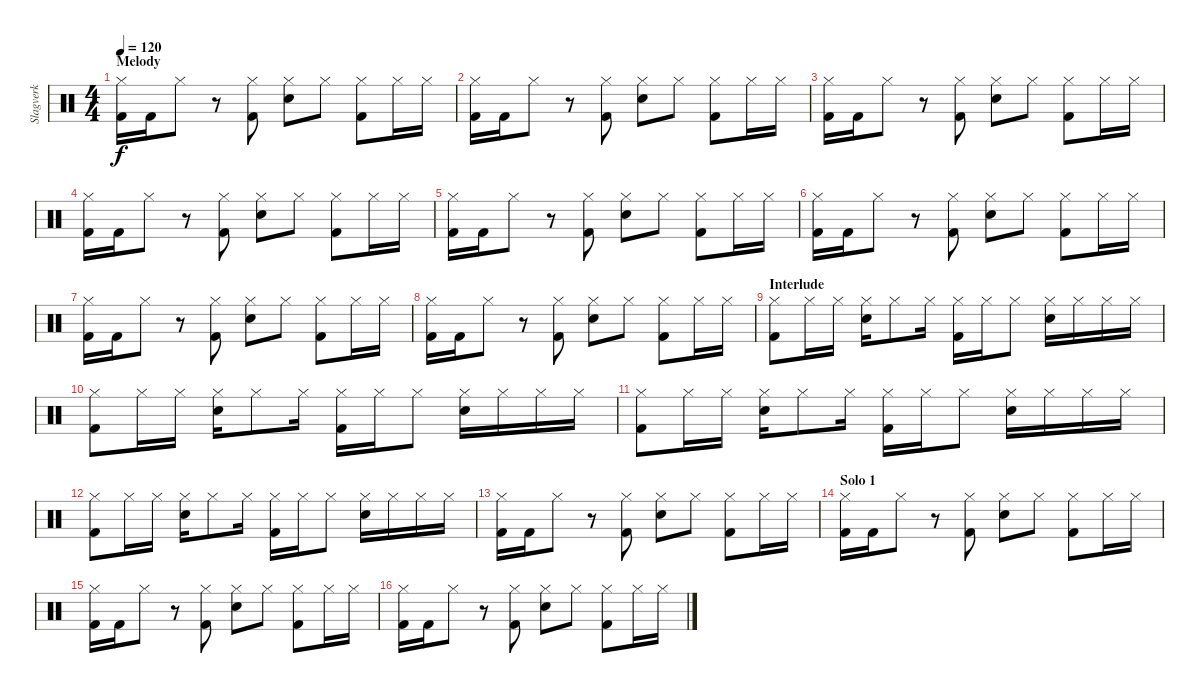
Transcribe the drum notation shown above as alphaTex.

\track ("Slagverk" "Slagverk") {instrument percussion}
\staff {score}
\articulation defaults
\ts (4 4)
\section ("" "Melody")
\tempo 120
\clef neutral
\ks c
("Hi-Hat (closed)" "Kick (hit) 2").16{dy f} "Kick (hit) 2".16 "Hi-Hat (closed)".8 r.8 ("Hi-Hat (closed)" "Kick (hit) 2").8 ("Hi-Hat (closed)" "Snare (hit) 2").8 "Hi-Hat (closed)".8 ("Hi-Hat (closed)" "Kick (hit) 2").8 "Hi-Hat (closed)".16 "Hi-Hat (closed)".16 |
("Hi-Hat (closed)" "Kick (hit) 2").16 "Kick (hit) 2".16 "Hi-Hat (closed)".8 r.8 ("Hi-Hat (closed)" "Kick (hit) 2").8 ("Hi-Hat (closed)" "Snare (hit) 2").8 "Hi-Hat (closed)".8 ("Hi-Hat (closed)" "Kick (hit) 2").8 "Hi-Hat (closed)".16 "Hi-Hat (closed)".16 |
("Hi-Hat (closed)" "Kick (hit) 2").16 "Kick (hit) 2".16 "Hi-Hat (closed)".8 r.8 ("Hi-Hat (closed)" "Kick (hit) 2").8 ("Hi-Hat (closed)" "Snare (hit) 2").8 "Hi-Hat (closed)".8 ("Hi-Hat (closed)" "Kick (hit) 2").8 "Hi-Hat (closed)".16 "Hi-Hat (closed)".16 |
("Hi-Hat (closed)" "Kick (hit) 2").16 "Kick (hit) 2".16 "Hi-Hat (closed)".8 r.8 ("Hi-Hat (closed)" "Kick (hit) 2").8 ("Hi-Hat (closed)" "Snare (hit) 2").8 "Hi-Hat (closed)".8 ("Hi-Hat (closed)" "Kick (hit) 2").8 "Hi-Hat (closed)".16 "Hi-Hat (closed)".16 |
("Hi-Hat (closed)" "Kick (hit) 2").16 "Kick (hit) 2".16 "Hi-Hat (closed)".8 r.8 ("Hi-Hat (closed)" "Kick (hit) 2").8 ("Hi-Hat (closed)" "Snare (hit) 2").8 "Hi-Hat (closed)".8 ("Hi-Hat (closed)" "Kick (hit) 2").8 "Hi-Hat (closed)".16 "Hi-Hat (closed)".16 |
("Hi-Hat (closed)" "Kick (hit) 2").16 "Kick (hit) 2".16 "Hi-Hat (closed)".8 r.8 ("Hi-Hat (closed)" "Kick (hit) 2").8 ("Hi-Hat (closed)" "Snare (hit) 2").8 "Hi-Hat (closed)".8 ("Hi-Hat (closed)" "Kick (hit) 2").8 "Hi-Hat (closed)".16 "Hi-Hat (closed)".16 |
("Hi-Hat (closed)" "Kick (hit) 2").16 "Kick (hit) 2".16 "Hi-Hat (closed)".8 r.8 ("Hi-Hat (closed)" "Kick (hit) 2").8 ("Hi-Hat (closed)" "Snare (hit) 2").8 "Hi-Hat (closed)".8 ("Hi-Hat (closed)" "Kick (hit) 2").8 "Hi-Hat (closed)".16 "Hi-Hat (closed)".16 |
("Hi-Hat (closed)" "Kick (hit) 2").16 "Kick (hit) 2".16 "Hi-Hat (closed)".8 r.8 ("Hi-Hat (closed)" "Kick (hit) 2").8 ("Hi-Hat (closed)" "Snare (hit) 2").8 "Hi-Hat (closed)".8 ("Hi-Hat (closed)" "Kick (hit) 2").8 "Hi-Hat (closed)".16 "Hi-Hat (closed)".16 |
\section ("" "Interlude")
("Hi-Hat (closed)" "Kick (hit) 2").8 "Hi-Hat (closed)".16 "Hi-Hat (closed)".16 ("Hi-Hat (closed)" "Snare (hit) 2").16 "Hi-Hat (closed)".8 "Hi-Hat (closed)".16 ("Hi-Hat (closed)" "Kick (hit) 2").16 "Hi-Hat (closed)".16 "Hi-Hat (closed)".8 ("Hi-Hat (closed)" "Snare (hit) 2").16 "Hi-Hat (closed)".16 "Hi-Hat (closed)".16 "Hi-Hat (closed)".16 |
("Hi-Hat (closed)" "Kick (hit) 2").8 "Hi-Hat (closed)".16 "Hi-Hat (closed)".16 ("Hi-Hat (closed)" "Snare (hit) 2").16 "Hi-Hat (closed)".8 "Hi-Hat (closed)".16 ("Hi-Hat (closed)" "Kick (hit) 2").16 "Hi-Hat (closed)".16 "Hi-Hat (closed)".8 ("Hi-Hat (closed)" "Snare (hit) 2").16 "Hi-Hat (closed)".16 "Hi-Hat (closed)".16 "Hi-Hat (closed)".16 |
("Hi-Hat (closed)" "Kick (hit) 2").8 "Hi-Hat (closed)".16 "Hi-Hat (closed)".16 ("Hi-Hat (closed)" "Snare (hit) 2").16 "Hi-Hat (closed)".8 "Hi-Hat (closed)".16 ("Hi-Hat (closed)" "Kick (hit) 2").16 "Hi-Hat (closed)".16 "Hi-Hat (closed)".8 ("Hi-Hat (closed)" "Snare (hit) 2").16 "Hi-Hat (closed)".16 "Hi-Hat (closed)".16 "Hi-Hat (closed)".16 |
("Hi-Hat (closed)" "Kick (hit) 2").8 "Hi-Hat (closed)".16 "Hi-Hat (closed)".16 ("Hi-Hat (closed)" "Snare (hit) 2").16 "Hi-Hat (closed)".8 "Hi-Hat (closed)".16 ("Hi-Hat (closed)" "Kick (hit) 2").16 "Hi-Hat (closed)".16 "Hi-Hat (closed)".8 ("Hi-Hat (closed)" "Snare (hit) 2").16 "Hi-Hat (closed)".16 "Hi-Hat (closed)".16 "Hi-Hat (closed)".16 |
("Hi-Hat (closed)" "Kick (hit) 2").16 "Kick (hit) 2".16 "Hi-Hat (closed)".8 r.8 ("Hi-Hat (closed)" "Kick (hit) 2").8 ("Hi-Hat (closed)" "Snare (hit) 2").8 "Hi-Hat (closed)".8 ("Hi-Hat (closed)" "Kick (hit) 2").8 "Hi-Hat (closed)".16 "Hi-Hat (closed)".16 |
\section ("" "Solo 1")
("Hi-Hat (closed)" "Kick (hit) 2").16 "Kick (hit) 2".16 "Hi-Hat (closed)".8 r.8 ("Hi-Hat (closed)" "Kick (hit) 2").8 ("Hi-Hat (closed)" "Snare (hit) 2").8 "Hi-Hat (closed)".8 ("Hi-Hat (closed)" "Kick (hit) 2").8 "Hi-Hat (closed)".16 "Hi-Hat (closed)".16 |
("Hi-Hat (closed)" "Kick (hit) 2").16 "Kick (hit) 2".16 "Hi-Hat (closed)".8 r.8 ("Hi-Hat (closed)" "Kick (hit) 2").8 ("Hi-Hat (closed)" "Snare (hit) 2").8 "Hi-Hat (closed)".8 ("Hi-Hat (closed)" "Kick (hit) 2").8 "Hi-Hat (closed)".16 "Hi-Hat (closed)".16 |
("Hi-Hat (closed)" "Kick (hit) 2").16 "Kick (hit) 2".16 "Hi-Hat (closed)".8 r.8 ("Hi-Hat (closed)" "Kick (hit) 2").8 ("Hi-Hat (closed)" "Snare (hit) 2").8 "Hi-Hat (closed)".8 ("Hi-Hat (closed)" "Kick (hit) 2").8 "Hi-Hat (closed)".16 "Hi-Hat (closed)".16
